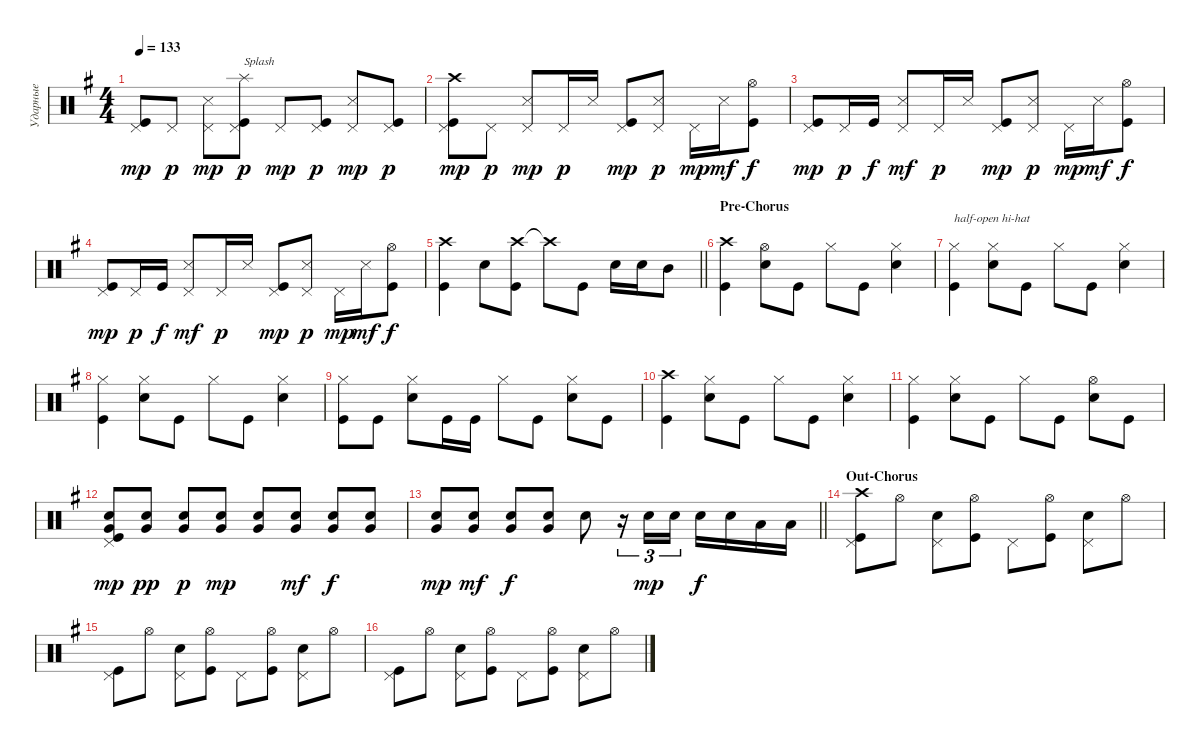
\track ("Ударные" "Ударные") {instrument percussion}
\staff {score}
\articulation defaults
\ts (4 4)
\tempo 133
\clef neutral
\ks eminor
("Kick (hit)" "Pedal Hi-Hat (hit)").8{dy mp} "Pedal Hi-Hat (hit)".8{dy p} ("Snare (side stick) 3" "Pedal Hi-Hat (hit)").8{dy mp} ("Kick (hit)" "Splash (hit)" "Pedal Hi-Hat (hit)").8{txt "Splash" dy p} "Pedal Hi-Hat (hit)".8{dy mp} ("Kick (hit)" "Pedal Hi-Hat (hit)").8{dy p} ("Snare (side stick) 3" "Pedal Hi-Hat (hit)").8{dy mp} ("Kick (hit)" "Pedal Hi-Hat (hit)").8{dy p} |
("Pedal Hi-Hat (hit)" "Crash high (hit)" "Kick (hit)").8{dy mp} "Pedal Hi-Hat (hit)".8{dy p} ("Snare (side stick) 3" "Pedal Hi-Hat (hit)").8{dy mp} "Pedal Hi-Hat (hit)".16{dy p} "Snare (side stick) 3".16 ("Kick (hit)" "Pedal Hi-Hat (hit)").8{dy mp} ("Snare (side stick) 3" "Pedal Hi-Hat (hit)").8{dy p} "Pedal Hi-Hat (hit)".16{dy mp} "Snare (side stick) 3".16{dy mf} ("Kick (hit)" "Hi-Hat (open)").8{dy f} |
("Pedal Hi-Hat (hit)" "Kick (hit)").8{dy mp} "Pedal Hi-Hat (hit)".16{dy p} "Kick (hit)".16{dy f} ("Pedal Hi-Hat (hit)" "Snare (side stick) 3").8{dy mf} "Pedal Hi-Hat (hit)".16{dy p} "Snare (side stick) 3".16 ("Kick (hit)" "Pedal Hi-Hat (hit)").8{dy mp} ("Snare (side stick) 3" "Pedal Hi-Hat (hit)").8{dy p} "Pedal Hi-Hat (hit)".16{dy mp} "Snare (side stick) 3".16{dy mf} ("Kick (hit)" "Hi-Hat (open)").8{dy f} |
("Pedal Hi-Hat (hit)" "Kick (hit)").8{dy mp} "Pedal Hi-Hat (hit)".16{dy p} "Kick (hit)".16{dy f} ("Pedal Hi-Hat (hit)" "Snare (side stick) 3").8{dy mf} "Pedal Hi-Hat (hit)".16{dy p} "Snare (side stick) 3".16 ("Kick (hit)" "Pedal Hi-Hat (hit)").8{dy mp} ("Snare (side stick) 3" "Pedal Hi-Hat (hit)").8{dy p} "Pedal Hi-Hat (hit)".16{dy mp} "Snare (side stick) 3".16{dy mf} ("Kick (hit)" "Hi-Hat (open)").8{dy f} |
\barLineRight lightlight
("Kick (hit)" "Crash high (hit)").4 "Snare (hit) 2".8 ("Crash high (hit)" "Kick (hit)").8 "Crash high (hit)"{t}.8 "Kick (hit)".8 "Snare (hit) 2".16 "Snare (hit) 2".16 "Mid Tom (hit)".8 |
\section ("" "Pre-Chorus")
("Kick (hit)" "Crash high (hit)").4 ("Snare (hit) 2" "Hi-Hat (open)").8 "Kick (hit)".8 "Hi-Hat (closed)".8 "Kick (hit)".8 ("Snare (hit) 2" "Hi-Hat (closed)").4 |
("Kick (hit)" "Hi-Hat (closed)").4{txt "half-open hi-hat"} ("Snare (hit) 2" "Hi-Hat (closed)").8 "Kick (hit)".8 "Hi-Hat (closed)".8 "Kick (hit)".8 ("Snare (hit) 2" "Hi-Hat (closed)").4 |
("Kick (hit)" "Hi-Hat (closed)").4 ("Snare (hit) 2" "Hi-Hat (closed)").8 "Kick (hit)".8 "Hi-Hat (closed)".8 "Kick (hit)".8 ("Snare (hit) 2" "Hi-Hat (closed)").4 |
("Kick (hit)" "Hi-Hat (closed)").8 "Kick (hit)".8 ("Snare (hit) 2" "Hi-Hat (closed)").8 "Kick (hit)".16 "Kick (hit)".16 "Hi-Hat (closed)".8 "Kick (hit)".8 ("Snare (hit) 2" "Hi-Hat (closed)").8 "Kick (hit)".8 |
("Kick (hit)" "Crash high (hit)").4 ("Snare (hit) 2" "Hi-Hat (closed)").8 "Kick (hit)".8 "Hi-Hat (closed)".8 "Kick (hit)".8 ("Snare (hit) 2" "Hi-Hat (closed)").4 |
("Kick (hit)" "Hi-Hat (closed)").4 ("Snare (hit) 2" "Hi-Hat (closed)").8 "Kick (hit)".8 "Hi-Hat (closed)".8 "Kick (hit)".8 ("Snare (hit) 2" "Hi-Hat (open)").8 "Kick (hit)".8 |
("Kick (hit)" "Very Low Tom (hit)" "Snare (hit) 2" "Pedal Hi-Hat (hit)").8{dy mp} ("Very Low Tom (hit)" "Snare (hit) 2").8{dy pp} ("Very Low Tom (hit)" "Snare (hit) 2").8{bd 60 dy p} ("Very Low Tom (hit)" "Snare (hit) 2").8{bd 60 dy mp} ("Very Low Tom (hit)" "Snare (hit) 2").8{bd 60} ("Very Low Tom (hit)" "Snare (hit) 2").8{bd 60 dy mf} ("Very Low Tom (hit)" "Snare (hit) 2").8{bd 60 dy f} ("Very Low Tom (hit)" "Snare (hit) 2").8{bd 60} |
\barLineRight lightlight
("Very Low Tom (hit)" "Snare (hit) 2").8{bd 60 dy mp} ("Very Low Tom (hit)" "Snare (hit) 2").8{bd 60 dy mf} ("Very Low Tom (hit)" "Snare (hit) 2").8{bd 60 dy f} ("Very Low Tom (hit)" "Snare (hit) 2").8{bd 60} "Snare (hit) 2".8 r.16{tu (3 2)} "Snare (hit) 2".16{tu (3 2) dy mp} "Snare (hit) 2".16{tu (3 2)} "Snare (hit) 2".16{dy f} "Snare (hit) 2".16 "Low Tom (hit)".16 "Low Tom (hit)".16 |
\section ("" "Out-Chorus")
("Pedal Hi-Hat (hit)" "Kick (hit)" "Crash high (hit)").8 "Hi-Hat (open)".8 ("Pedal Hi-Hat (hit)" "Snare (hit) 2").8 ("Hi-Hat (open)" "Kick (hit)").8 "Pedal Hi-Hat (hit)".8 ("Hi-Hat (open)" "Kick (hit)").8 ("Pedal Hi-Hat (hit)" "Snare (hit) 2").8 "Hi-Hat (open)".8 |
("Pedal Hi-Hat (hit)" "Kick (hit)").8 "Hi-Hat (open)".8 ("Pedal Hi-Hat (hit)" "Snare (hit) 2").8 ("Hi-Hat (open)" "Kick (hit)").8 "Pedal Hi-Hat (hit)".8 ("Hi-Hat (open)" "Kick (hit)").8 ("Pedal Hi-Hat (hit)" "Snare (hit) 2").8 "Hi-Hat (open)".8 |
("Pedal Hi-Hat (hit)" "Kick (hit)").8 "Hi-Hat (open)".8 ("Pedal Hi-Hat (hit)" "Snare (hit) 2").8 ("Hi-Hat (open)" "Kick (hit)").8 "Pedal Hi-Hat (hit)".8 ("Hi-Hat (open)" "Kick (hit)").8 ("Pedal Hi-Hat (hit)" "Snare (hit) 2").8 "Hi-Hat (open)".8
